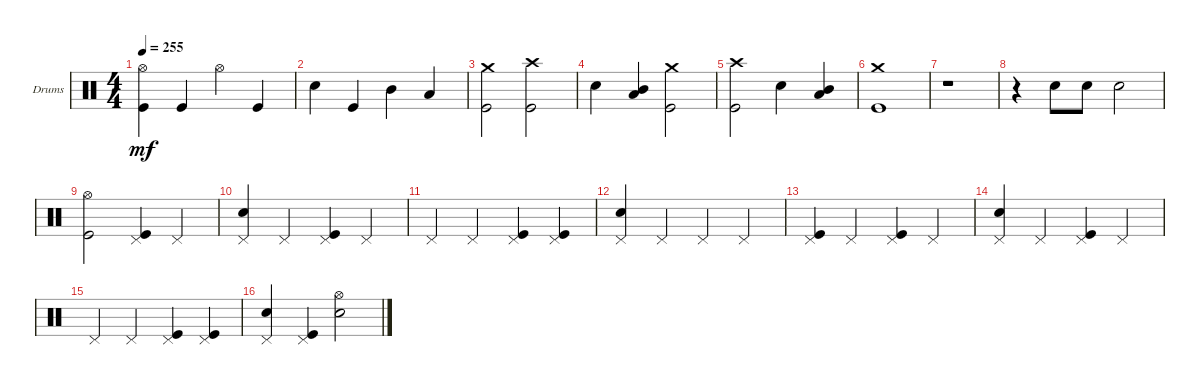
\bracketExtendMode groupsimilarinstruments
\firstSystemTrackNameOrientation horizontal
\otherSystemsTrackNameOrientation horizontal
\track ("Drums" "Drums") {instrument percussion}
\staff {score}
\articulation defaults
\ts (4 4)
\tempo 255
\clef neutral
\ks c
("Kick (hit)" "Hi-Hat (open)").4{dy mf} "Kick (hit)".4 "Hi-Hat (open)".4 "Kick (hit)".4 |
"Snare (hit) 2".4 "Kick (hit)".4 "Mid Tom (hit)".4 "Low Tom (hit)".4 |
("Kick (hit)" "Crash medium (hit)").2 ("Kick (hit)" "Crash high (hit)").2 |
"Snare (hit) 2".4 ("Low Tom (hit)" "Mid Tom (hit)").4 ("Kick (hit)" "Crash medium (hit)").2 |
("Kick (hit)" "Crash high (hit)").2 "Snare (hit) 2".4 ("Low Tom (hit)" "Mid Tom (hit)").4 |
("Kick (hit)" "Crash medium (hit)").1 |
r.1 |
r.4 "Snare (hit) 2".8 "Snare (hit) 2".8 "Snare (hit) 2".2 |
("Kick (hit)" "Hi-Hat (open)").2 ("Kick (hit)" "Pedal Hi-Hat (hit)").4 "Pedal Hi-Hat (hit)".4 |
("Snare (hit) 2" "Pedal Hi-Hat (hit)").4 "Pedal Hi-Hat (hit)".4 ("Kick (hit)" "Pedal Hi-Hat (hit)").4 "Pedal Hi-Hat (hit)".4 |
"Pedal Hi-Hat (hit)".4 "Pedal Hi-Hat (hit)".4 ("Kick (hit)" "Pedal Hi-Hat (hit)").4 ("Kick (hit)" "Pedal Hi-Hat (hit)").4 |
("Snare (hit) 2" "Pedal Hi-Hat (hit)").4 "Pedal Hi-Hat (hit)".4 "Pedal Hi-Hat (hit)".4 "Pedal Hi-Hat (hit)".4 |
("Kick (hit)" "Pedal Hi-Hat (hit)").4 "Pedal Hi-Hat (hit)".4 ("Kick (hit)" "Pedal Hi-Hat (hit)").4 "Pedal Hi-Hat (hit)".4 |
("Snare (hit) 2" "Pedal Hi-Hat (hit)").4 "Pedal Hi-Hat (hit)".4 ("Kick (hit)" "Pedal Hi-Hat (hit)").4 "Pedal Hi-Hat (hit)".4 |
"Pedal Hi-Hat (hit)".4 "Pedal Hi-Hat (hit)".4 ("Kick (hit)" "Pedal Hi-Hat (hit)").4 ("Kick (hit)" "Pedal Hi-Hat (hit)").4 |
("Snare (hit) 2" "Pedal Hi-Hat (hit)").4 ("Kick (hit)" "Pedal Hi-Hat (hit)").4 ("Snare (hit) 2" "Hi-Hat (open)").2
